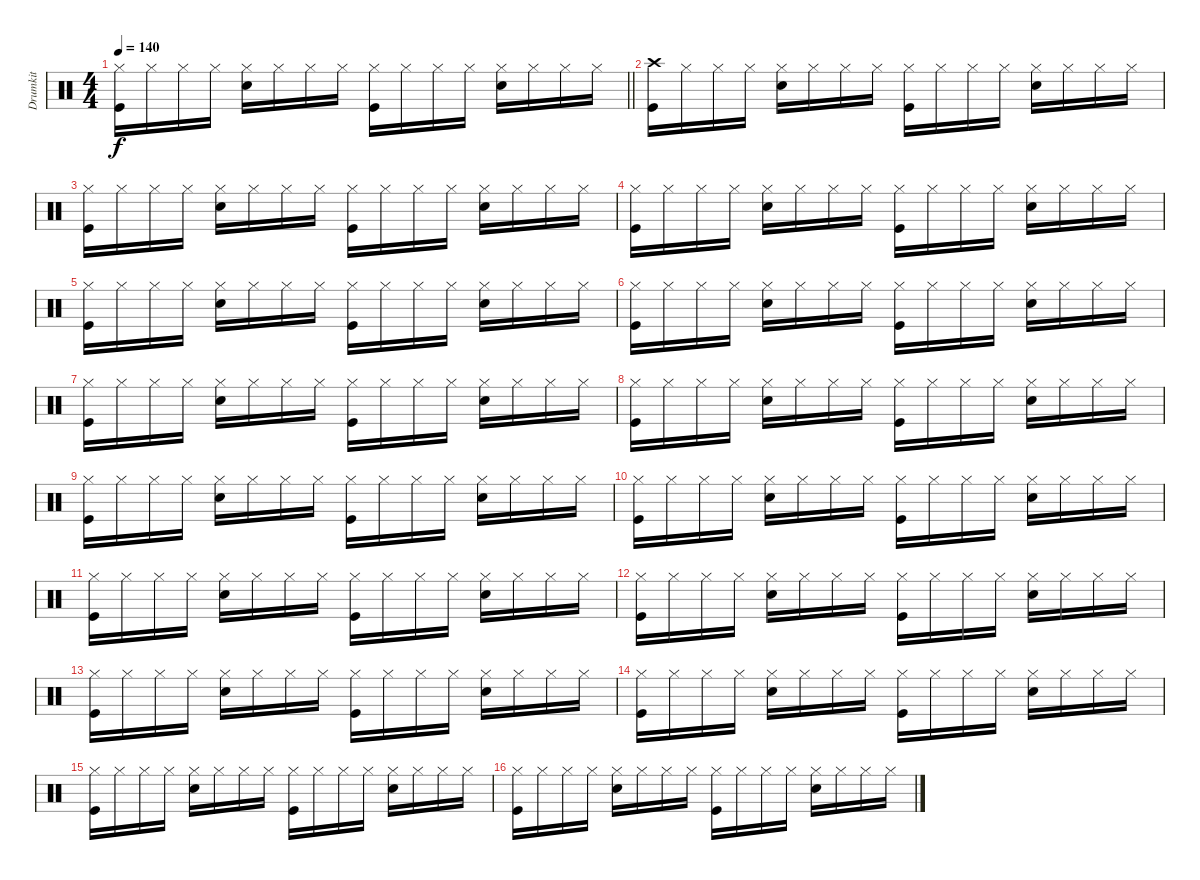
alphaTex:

\track ("Drumkit" "Drumkit") {instrument percussion}
\staff {score}
\articulation defaults
\ts (4 4)
\tempo 140
\clef neutral
\barLineRight lightlight
\ks c
("Hi-Hat (closed)" "Kick (hit)").16{dy f} "Hi-Hat (closed)".16 "Hi-Hat (closed)".16 "Hi-Hat (closed)".16 ("Hi-Hat (closed)" "Snare (hit) 2").16 "Hi-Hat (closed)".16 "Hi-Hat (closed)".16 "Hi-Hat (closed)".16 ("Hi-Hat (closed)" "Kick (hit)").16 "Hi-Hat (closed)".16 "Hi-Hat (closed)".16 "Hi-Hat (closed)".16 ("Hi-Hat (closed)" "Snare (hit) 2").16 "Hi-Hat (closed)".16 "Hi-Hat (closed)".16 "Hi-Hat (closed)".16 |
("Crash high (hit)" "Kick (hit)").16 "Hi-Hat (closed)".16 "Hi-Hat (closed)".16 "Hi-Hat (closed)".16 ("Hi-Hat (closed)" "Snare (hit) 2").16 "Hi-Hat (closed)".16 "Hi-Hat (closed)".16 "Hi-Hat (closed)".16 ("Hi-Hat (closed)" "Kick (hit)").16 "Hi-Hat (closed)".16 "Hi-Hat (closed)".16 "Hi-Hat (closed)".16 ("Hi-Hat (closed)" "Snare (hit) 2").16 "Hi-Hat (closed)".16 "Hi-Hat (closed)".16 "Hi-Hat (closed)".16 |
("Hi-Hat (closed)" "Kick (hit)").16 "Hi-Hat (closed)".16 "Hi-Hat (closed)".16 "Hi-Hat (closed)".16 ("Hi-Hat (closed)" "Snare (hit) 2").16 "Hi-Hat (closed)".16 "Hi-Hat (closed)".16 "Hi-Hat (closed)".16 ("Hi-Hat (closed)" "Kick (hit)").16 "Hi-Hat (closed)".16 "Hi-Hat (closed)".16 "Hi-Hat (closed)".16 ("Hi-Hat (closed)" "Snare (hit) 2").16 "Hi-Hat (closed)".16 "Hi-Hat (closed)".16 "Hi-Hat (closed)".16 |
("Hi-Hat (closed)" "Kick (hit)").16 "Hi-Hat (closed)".16 "Hi-Hat (closed)".16 "Hi-Hat (closed)".16 ("Hi-Hat (closed)" "Snare (hit) 2").16 "Hi-Hat (closed)".16 "Hi-Hat (closed)".16 "Hi-Hat (closed)".16 ("Hi-Hat (closed)" "Kick (hit)").16 "Hi-Hat (closed)".16 "Hi-Hat (closed)".16 "Hi-Hat (closed)".16 ("Hi-Hat (closed)" "Snare (hit) 2").16 "Hi-Hat (closed)".16 "Hi-Hat (closed)".16 "Hi-Hat (closed)".16 |
("Hi-Hat (closed)" "Kick (hit)").16 "Hi-Hat (closed)".16 "Hi-Hat (closed)".16 "Hi-Hat (closed)".16 ("Hi-Hat (closed)" "Snare (hit) 2").16 "Hi-Hat (closed)".16 "Hi-Hat (closed)".16 "Hi-Hat (closed)".16 ("Hi-Hat (closed)" "Kick (hit)").16 "Hi-Hat (closed)".16 "Hi-Hat (closed)".16 "Hi-Hat (closed)".16 ("Hi-Hat (closed)" "Snare (hit) 2").16 "Hi-Hat (closed)".16 "Hi-Hat (closed)".16 "Hi-Hat (closed)".16 |
("Hi-Hat (closed)" "Kick (hit)").16 "Hi-Hat (closed)".16 "Hi-Hat (closed)".16 "Hi-Hat (closed)".16 ("Hi-Hat (closed)" "Snare (hit) 2").16 "Hi-Hat (closed)".16 "Hi-Hat (closed)".16 "Hi-Hat (closed)".16 ("Hi-Hat (closed)" "Kick (hit)").16 "Hi-Hat (closed)".16 "Hi-Hat (closed)".16 "Hi-Hat (closed)".16 ("Hi-Hat (closed)" "Snare (hit) 2").16 "Hi-Hat (closed)".16 "Hi-Hat (closed)".16 "Hi-Hat (closed)".16 |
("Hi-Hat (closed)" "Kick (hit)").16 "Hi-Hat (closed)".16 "Hi-Hat (closed)".16 "Hi-Hat (closed)".16 ("Hi-Hat (closed)" "Snare (hit) 2").16 "Hi-Hat (closed)".16 "Hi-Hat (closed)".16 "Hi-Hat (closed)".16 ("Hi-Hat (closed)" "Kick (hit)").16 "Hi-Hat (closed)".16 "Hi-Hat (closed)".16 "Hi-Hat (closed)".16 ("Hi-Hat (closed)" "Snare (hit) 2").16 "Hi-Hat (closed)".16 "Hi-Hat (closed)".16 "Hi-Hat (closed)".16 |
("Hi-Hat (closed)" "Kick (hit)").16 "Hi-Hat (closed)".16 "Hi-Hat (closed)".16 "Hi-Hat (closed)".16 ("Hi-Hat (closed)" "Snare (hit) 2").16 "Hi-Hat (closed)".16 "Hi-Hat (closed)".16 "Hi-Hat (closed)".16 ("Hi-Hat (closed)" "Kick (hit)").16 "Hi-Hat (closed)".16 "Hi-Hat (closed)".16 "Hi-Hat (closed)".16 ("Hi-Hat (closed)" "Snare (hit) 2").16 "Hi-Hat (closed)".16 "Hi-Hat (closed)".16 "Hi-Hat (closed)".16 |
("Hi-Hat (closed)" "Kick (hit)").16 "Hi-Hat (closed)".16 "Hi-Hat (closed)".16 "Hi-Hat (closed)".16 ("Hi-Hat (closed)" "Snare (hit) 2").16 "Hi-Hat (closed)".16 "Hi-Hat (closed)".16 "Hi-Hat (closed)".16 ("Hi-Hat (closed)" "Kick (hit)").16 "Hi-Hat (closed)".16 "Hi-Hat (closed)".16 "Hi-Hat (closed)".16 ("Hi-Hat (closed)" "Snare (hit) 2").16 "Hi-Hat (closed)".16 "Hi-Hat (closed)".16 "Hi-Hat (closed)".16 |
("Hi-Hat (closed)" "Kick (hit)").16 "Hi-Hat (closed)".16 "Hi-Hat (closed)".16 "Hi-Hat (closed)".16 ("Hi-Hat (closed)" "Snare (hit) 2").16 "Hi-Hat (closed)".16 "Hi-Hat (closed)".16 "Hi-Hat (closed)".16 ("Hi-Hat (closed)" "Kick (hit)").16 "Hi-Hat (closed)".16 "Hi-Hat (closed)".16 "Hi-Hat (closed)".16 ("Hi-Hat (closed)" "Snare (hit) 2").16 "Hi-Hat (closed)".16 "Hi-Hat (closed)".16 "Hi-Hat (closed)".16 |
("Hi-Hat (closed)" "Kick (hit)").16 "Hi-Hat (closed)".16 "Hi-Hat (closed)".16 "Hi-Hat (closed)".16 ("Hi-Hat (closed)" "Snare (hit) 2").16 "Hi-Hat (closed)".16 "Hi-Hat (closed)".16 "Hi-Hat (closed)".16 ("Hi-Hat (closed)" "Kick (hit)").16 "Hi-Hat (closed)".16 "Hi-Hat (closed)".16 "Hi-Hat (closed)".16 ("Hi-Hat (closed)" "Snare (hit) 2").16 "Hi-Hat (closed)".16 "Hi-Hat (closed)".16 "Hi-Hat (closed)".16 |
("Hi-Hat (closed)" "Kick (hit)").16 "Hi-Hat (closed)".16 "Hi-Hat (closed)".16 "Hi-Hat (closed)".16 ("Hi-Hat (closed)" "Snare (hit) 2").16 "Hi-Hat (closed)".16 "Hi-Hat (closed)".16 "Hi-Hat (closed)".16 ("Hi-Hat (closed)" "Kick (hit)").16 "Hi-Hat (closed)".16 "Hi-Hat (closed)".16 "Hi-Hat (closed)".16 ("Hi-Hat (closed)" "Snare (hit) 2").16 "Hi-Hat (closed)".16 "Hi-Hat (closed)".16 "Hi-Hat (closed)".16 |
("Hi-Hat (closed)" "Kick (hit)").16 "Hi-Hat (closed)".16 "Hi-Hat (closed)".16 "Hi-Hat (closed)".16 ("Hi-Hat (closed)" "Snare (hit) 2").16 "Hi-Hat (closed)".16 "Hi-Hat (closed)".16 "Hi-Hat (closed)".16 ("Hi-Hat (closed)" "Kick (hit)").16 "Hi-Hat (closed)".16 "Hi-Hat (closed)".16 "Hi-Hat (closed)".16 ("Hi-Hat (closed)" "Snare (hit) 2").16 "Hi-Hat (closed)".16 "Hi-Hat (closed)".16 "Hi-Hat (closed)".16 |
("Hi-Hat (closed)" "Kick (hit)").16 "Hi-Hat (closed)".16 "Hi-Hat (closed)".16 "Hi-Hat (closed)".16 ("Hi-Hat (closed)" "Snare (hit) 2").16 "Hi-Hat (closed)".16 "Hi-Hat (closed)".16 "Hi-Hat (closed)".16 ("Hi-Hat (closed)" "Kick (hit)").16 "Hi-Hat (closed)".16 "Hi-Hat (closed)".16 "Hi-Hat (closed)".16 ("Hi-Hat (closed)" "Snare (hit) 2").16 "Hi-Hat (closed)".16 "Hi-Hat (closed)".16 "Hi-Hat (closed)".16 |
("Hi-Hat (closed)" "Kick (hit)").16 "Hi-Hat (closed)".16 "Hi-Hat (closed)".16 "Hi-Hat (closed)".16 ("Hi-Hat (closed)" "Snare (hit) 2").16 "Hi-Hat (closed)".16 "Hi-Hat (closed)".16 "Hi-Hat (closed)".16 ("Hi-Hat (closed)" "Kick (hit)").16 "Hi-Hat (closed)".16 "Hi-Hat (closed)".16 "Hi-Hat (closed)".16 ("Hi-Hat (closed)" "Snare (hit) 2").16 "Hi-Hat (closed)".16 "Hi-Hat (closed)".16 "Hi-Hat (closed)".16 |
("Hi-Hat (closed)" "Kick (hit)").16 "Hi-Hat (closed)".16 "Hi-Hat (closed)".16 "Hi-Hat (closed)".16 ("Hi-Hat (closed)" "Snare (hit) 2").16 "Hi-Hat (closed)".16 "Hi-Hat (closed)".16 "Hi-Hat (closed)".16 ("Hi-Hat (closed)" "Kick (hit)").16 "Hi-Hat (closed)".16 "Hi-Hat (closed)".16 "Hi-Hat (closed)".16 ("Hi-Hat (closed)" "Snare (hit) 2").16 "Hi-Hat (closed)".16 "Hi-Hat (closed)".16 "Hi-Hat (closed)".16
